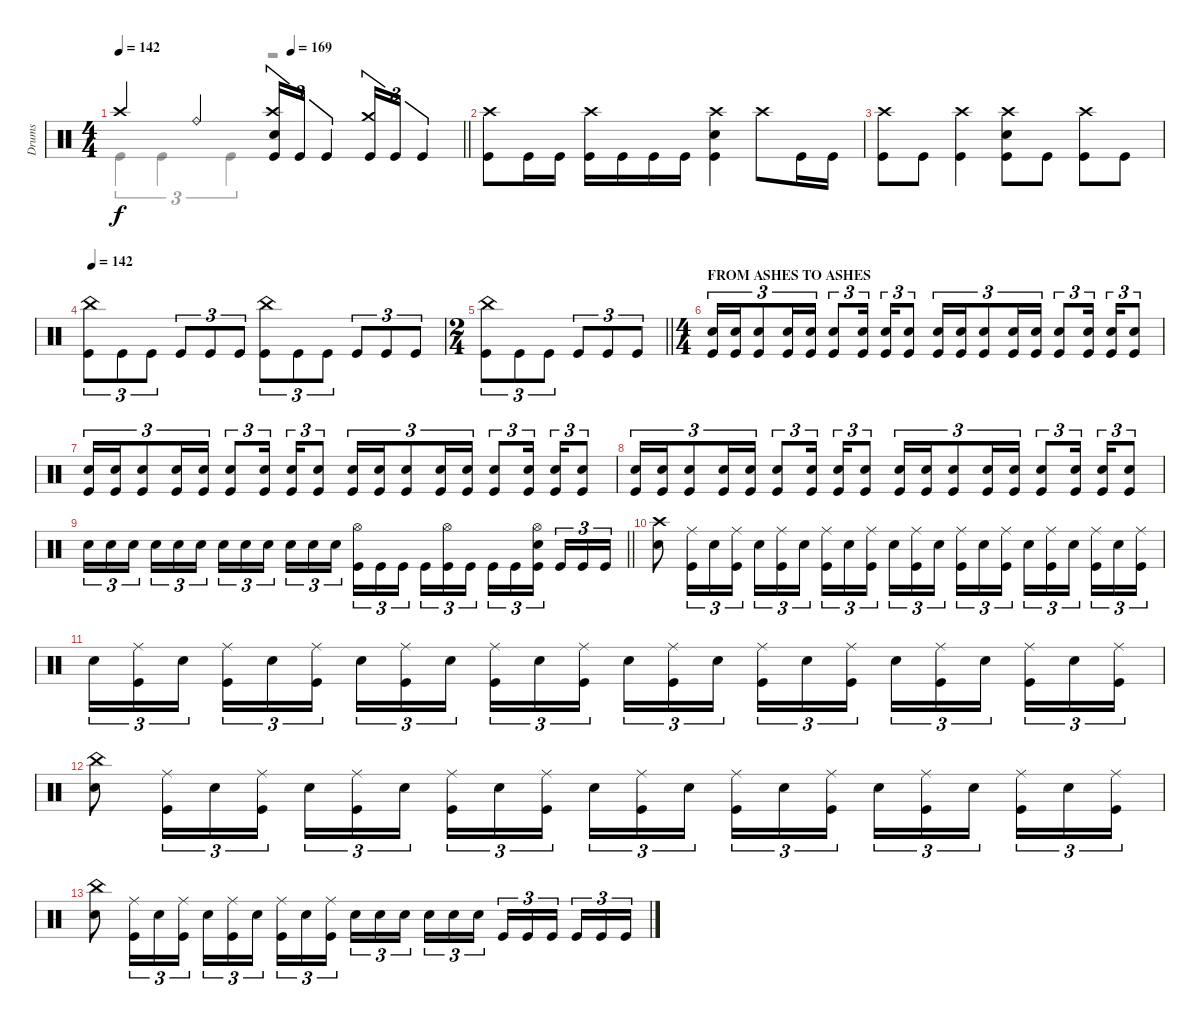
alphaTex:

\track ("Drums" "Drums") {instrument percussion}
\staff
\articulation defaults
\voice
\ts (4 4)
\tempo 142
\tempo (169 0.5)
\clef neutral
\barLineRight lightlight
\ks c "Crash high (hit)".4{dy f} "Ride (bell)".4
("Crash high (hit)" "Electric Snare (hit)" "Kick (hit)").16{tu (3 2)} "Kick (hit)".16{tu (3 2)} "Kick (hit)".4{tu (3 2)} ("Crash medium (hit)" "Kick (hit)").16{tu (3 2)} "Kick (hit)".16{tu (3 2)} "Kick (hit)".4{tu (3 2)} |
("Crash high (hit)" "Kick (hit)").8 "Kick (hit)".16 "Kick (hit)".16 ("Crash high (hit)" "Kick (hit)").16 "Kick (hit)".16 "Kick (hit)".16 "Kick (hit)".16 ("Crash high (hit)" "Electric Snare (hit)" "Kick (hit)").4 "Crash high (hit)".8 "Kick (hit)".16 "Kick (hit)".16 |
("Crash high (hit)" "Kick (hit)").8 "Kick (hit)".8 ("Crash high (hit)" "Kick (hit)").4 ("Crash high (hit)" "Electric Snare (hit)" "Kick (hit)").8 "Kick (hit)".8 ("Crash high (hit)" "Kick (hit)").8 "Kick (hit)".8 |
\tempo 142
("China (hit)" "Kick (hit)").8{tu (3 2)} "Kick (hit)".8{tu (3 2)} "Kick (hit)".8{tu (3 2)} "Kick (hit)".8{tu (3 2)} "Kick (hit)".8{tu (3 2)} "Kick (hit)".8{tu (3 2)} ("China (hit)" "Kick (hit)").8{tu (3 2)} "Kick (hit)".8{tu (3 2)} "Kick (hit)".8{tu (3 2)} "Kick (hit)".8{tu (3 2)} "Kick (hit)".8{tu (3 2)} "Kick (hit)".8{tu (3 2)} |
\ts (2 4)
\barLineRight lightlight
("China (hit)" "Kick (hit)").8{tu (3 2)} "Kick (hit)".8{tu (3 2)} "Kick (hit)".8{tu (3 2)} "Kick (hit)".8{tu (3 2)} "Kick (hit)".8{tu (3 2)} "Kick (hit)".8{tu (3 2)} |
\ts (4 4)
\section ("" "FROM ASHES TO ASHES")
("Electric Snare (hit)" "Kick (hit)").16{tu (3 2)} ("Electric Snare (hit)" "Kick (hit)").16{tu (3 2)} ("Electric Snare (hit)" "Kick (hit)").8{tu (3 2)} ("Electric Snare (hit)" "Kick (hit)").16{tu (3 2)} ("Electric Snare (hit)" "Kick (hit)").16{tu (3 2)} ("Electric Snare (hit)" "Kick (hit)").8{tu (3 2)} ("Electric Snare (hit)" "Kick (hit)").16{tu (3 2) beam splitsecondary} ("Electric Snare (hit)" "Kick (hit)").16{tu (3 2)} ("Electric Snare (hit)" "Kick (hit)").8{tu (3 2)} ("Electric Snare (hit)" "Kick (hit)").16{tu (3 2)} ("Electric Snare (hit)" "Kick (hit)").16{tu (3 2)} ("Electric Snare (hit)" "Kick (hit)").8{tu (3 2)} ("Electric Snare (hit)" "Kick (hit)").16{tu (3 2)} ("Electric Snare (hit)" "Kick (hit)").16{tu (3 2)} ("Electric Snare (hit)" "Kick (hit)").8{tu (3 2)} ("Electric Snare (hit)" "Kick (hit)").16{tu (3 2) beam splitsecondary} ("Electric Snare (hit)" "Kick (hit)").16{tu (3 2)} ("Electric Snare (hit)" "Kick (hit)").8{tu (3 2)} |
("Electric Snare (hit)" "Kick (hit)").16{tu (3 2)} ("Electric Snare (hit)" "Kick (hit)").16{tu (3 2)} ("Electric Snare (hit)" "Kick (hit)").8{tu (3 2)} ("Electric Snare (hit)" "Kick (hit)").16{tu (3 2)} ("Electric Snare (hit)" "Kick (hit)").16{tu (3 2)} ("Electric Snare (hit)" "Kick (hit)").8{tu (3 2)} ("Electric Snare (hit)" "Kick (hit)").16{tu (3 2) beam splitsecondary} ("Electric Snare (hit)" "Kick (hit)").16{tu (3 2)} ("Electric Snare (hit)" "Kick (hit)").8{tu (3 2)} ("Electric Snare (hit)" "Kick (hit)").16{tu (3 2)} ("Electric Snare (hit)" "Kick (hit)").16{tu (3 2)} ("Electric Snare (hit)" "Kick (hit)").8{tu (3 2)} ("Electric Snare (hit)" "Kick (hit)").16{tu (3 2)} ("Electric Snare (hit)" "Kick (hit)").16{tu (3 2)} ("Electric Snare (hit)" "Kick (hit)").8{tu (3 2)} ("Electric Snare (hit)" "Kick (hit)").16{tu (3 2) beam splitsecondary} ("Electric Snare (hit)" "Kick (hit)").16{tu (3 2)} ("Electric Snare (hit)" "Kick (hit)").8{tu (3 2)} |
("Electric Snare (hit)" "Kick (hit)").16{tu (3 2)} ("Electric Snare (hit)" "Kick (hit)").16{tu (3 2)} ("Electric Snare (hit)" "Kick (hit)").8{tu (3 2)} ("Electric Snare (hit)" "Kick (hit)").16{tu (3 2)} ("Electric Snare (hit)" "Kick (hit)").16{tu (3 2)} ("Electric Snare (hit)" "Kick (hit)").8{tu (3 2)} ("Electric Snare (hit)" "Kick (hit)").16{tu (3 2) beam splitsecondary} ("Electric Snare (hit)" "Kick (hit)").16{tu (3 2)} ("Electric Snare (hit)" "Kick (hit)").8{tu (3 2)} ("Electric Snare (hit)" "Kick (hit)").16{tu (3 2)} ("Electric Snare (hit)" "Kick (hit)").16{tu (3 2)} ("Electric Snare (hit)" "Kick (hit)").8{tu (3 2)} ("Electric Snare (hit)" "Kick (hit)").16{tu (3 2)} ("Electric Snare (hit)" "Kick (hit)").16{tu (3 2)} ("Electric Snare (hit)" "Kick (hit)").8{tu (3 2)} ("Electric Snare (hit)" "Kick (hit)").16{tu (3 2) beam splitsecondary} ("Electric Snare (hit)" "Kick (hit)").16{tu (3 2)} ("Electric Snare (hit)" "Kick (hit)").8{tu (3 2)} |
\barLineRight lightlight "Electric Snare (hit)".16{tu (3 2)} "Electric Snare (hit)".16{tu (3 2)} "Electric Snare (hit)".16{tu (3 2) beam splitsecondary} "Electric Snare (hit)".16{tu (3 2)} "Electric Snare (hit)".16{tu (3 2)} "Electric Snare (hit)".16{tu (3 2)} "Electric Snare (hit)".16{tu (3 2)} "Electric Snare (hit)".16{tu (3 2)} "Electric Snare (hit)".16{tu (3 2) beam splitsecondary} "Electric Snare (hit)".16{tu (3 2)} "Electric Snare (hit)".16{tu (3 2)} "Electric Snare (hit)".16{tu (3 2)}
("Hi-Hat (open)" "Kick (hit)").16{tu (3 2)} "Kick (hit)".16{tu (3 2)} "Kick (hit)".16{tu (3 2) beam splitsecondary} "Kick (hit)".16{tu (3 2)} ("Hi-Hat (open)" "Kick (hit)").16{tu (3 2)} "Kick (hit)".16{tu (3 2)} "Kick (hit)".16{tu (3 2)} "Kick (hit)".16{tu (3 2)} ("Hi-Hat (open)" "Electric Snare (hit)" "Kick (hit)").16{tu (3 2) beam splitsecondary} "Kick (hit)".16{tu (3 2)} "Kick (hit)".16{tu (3 2)} "Kick (hit)".16{tu (3 2)} |
("Crash high (hit)" "Electric Snare (hit)").8 ("Ride (middle)" "Kick (hit)").16{tu (3 2)} "Electric Snare (hit)".16{tu (3 2)} ("Ride (middle)" "Kick (hit)").16{tu (3 2)} "Electric Snare (hit)".16{tu (3 2)} ("Ride (middle)" "Kick (hit)").16{tu (3 2)} "Electric Snare (hit)".16{tu (3 2) beam splitsecondary} ("Ride (middle)" "Kick (hit)").16{tu (3 2)} "Electric Snare (hit)".16{tu (3 2)} ("Ride (middle)" "Kick (hit)").16{tu (3 2)} "Electric Snare (hit)".16{tu (3 2)} ("Ride (middle)" "Kick (hit)").16{tu (3 2)} "Electric Snare (hit)".16{tu (3 2) beam splitsecondary} ("Ride (middle)" "Kick (hit)").16{tu (3 2)} "Electric Snare (hit)".16{tu (3 2)} ("Ride (middle)" "Kick (hit)").16{tu (3 2)} "Electric Snare (hit)".16{tu (3 2)} ("Ride (middle)" "Kick (hit)").16{tu (3 2)} "Electric Snare (hit)".16{tu (3 2) beam splitsecondary} ("Ride (middle)" "Kick (hit)").16{tu (3 2)} "Electric Snare (hit)".16{tu (3 2)} ("Ride (middle)" "Kick (hit)").16{tu (3 2)} |
"Electric Snare (hit)".16{tu (3 2)} ("Ride (middle)" "Kick (hit)").16{tu (3 2)} "Electric Snare (hit)".16{tu (3 2) beam splitsecondary} ("Ride (middle)" "Kick (hit)").16{tu (3 2)} "Electric Snare (hit)".16{tu (3 2)} ("Ride (middle)" "Kick (hit)").16{tu (3 2)} "Electric Snare (hit)".16{tu (3 2)} ("Ride (middle)" "Kick (hit)").16{tu (3 2)} "Electric Snare (hit)".16{tu (3 2) beam splitsecondary} ("Ride (middle)" "Kick (hit)").16{tu (3 2)} "Electric Snare (hit)".16{tu (3 2)} ("Ride (middle)" "Kick (hit)").16{tu (3 2)} "Electric Snare (hit)".16{tu (3 2)} ("Ride (middle)" "Kick (hit)").16{tu (3 2)} "Electric Snare (hit)".16{tu (3 2) beam splitsecondary} ("Ride (middle)" "Kick (hit)").16{tu (3 2)} "Electric Snare (hit)".16{tu (3 2)} ("Ride (middle)" "Kick (hit)").16{tu (3 2)} "Electric Snare (hit)".16{tu (3 2)} ("Ride (middle)" "Kick (hit)").16{tu (3 2)} "Electric Snare (hit)".16{tu (3 2) beam splitsecondary} ("Ride (middle)" "Kick (hit)").16{tu (3 2)} "Electric Snare (hit)".16{tu (3 2)} ("Ride (middle)" "Kick (hit)").16{tu (3 2)} |
("China (hit)" "Electric Snare (hit)").8 ("Ride (middle)" "Kick (hit)").16{tu (3 2)} "Electric Snare (hit)".16{tu (3 2)} ("Ride (middle)" "Kick (hit)").16{tu (3 2)} "Electric Snare (hit)".16{tu (3 2)} ("Ride (middle)" "Kick (hit)").16{tu (3 2)} "Electric Snare (hit)".16{tu (3 2) beam splitsecondary} ("Ride (middle)" "Kick (hit)").16{tu (3 2)} "Electric Snare (hit)".16{tu (3 2)} ("Ride (middle)" "Kick (hit)").16{tu (3 2)} "Electric Snare (hit)".16{tu (3 2)} ("Ride (middle)" "Kick (hit)").16{tu (3 2)} "Electric Snare (hit)".16{tu (3 2) beam splitsecondary} ("Ride (middle)" "Kick (hit)").16{tu (3 2)} "Electric Snare (hit)".16{tu (3 2)} ("Ride (middle)" "Kick (hit)").16{tu (3 2)} "Electric Snare (hit)".16{tu (3 2)} ("Ride (middle)" "Kick (hit)").16{tu (3 2)} "Electric Snare (hit)".16{tu (3 2) beam splitsecondary} ("Ride (middle)" "Kick (hit)").16{tu (3 2)} "Electric Snare (hit)".16{tu (3 2)} ("Ride (middle)" "Kick (hit)").16{tu (3 2)} |
("China (hit)" "Electric Snare (hit)").8 ("Ride (middle)" "Kick (hit)").16{tu (3 2)} "Electric Snare (hit)".16{tu (3 2)} ("Ride (middle)" "Kick (hit)").16{tu (3 2)} "Electric Snare (hit)".16{tu (3 2)} ("Ride (middle)" "Kick (hit)").16{tu (3 2)} "Electric Snare (hit)".16{tu (3 2) beam splitsecondary} ("Ride (middle)" "Kick (hit)").16{tu (3 2)} "Electric Snare (hit)".16{tu (3 2)} ("Ride (middle)" "Kick (hit)").16{tu (3 2)} "Electric Snare (hit)".16{tu (3 2)} "Electric Snare (hit)".16{tu (3 2)} "Electric Snare (hit)".16{tu (3 2) beam splitsecondary} "Electric Snare (hit)".16{tu (3 2)} "Electric Snare (hit)".16{tu (3 2)} "Electric Snare (hit)".16{tu (3 2)} "Kick (hit)".16{tu (3 2)} "Kick (hit)".16{tu (3 2)} "Kick (hit)".16{tu (3 2) beam splitsecondary} "Kick (hit)".16{tu (3 2)} "Kick (hit)".16{tu (3 2)} "Kick (hit)".16{tu (3 2)}
\voice
\clef neutral
\ottava regular
\simile none
\barLineRight lightlight
\ks c "Kick (hit)".4{tu (3 2) dy f} "Kick (hit)".4{tu (3 2)} "Kick (hit)".4{tu (3 2)}
r.2 |
|
|
|
\barLineRight lightlight
|
|
|
|
\barLineRight lightlight
|
|
|
|
